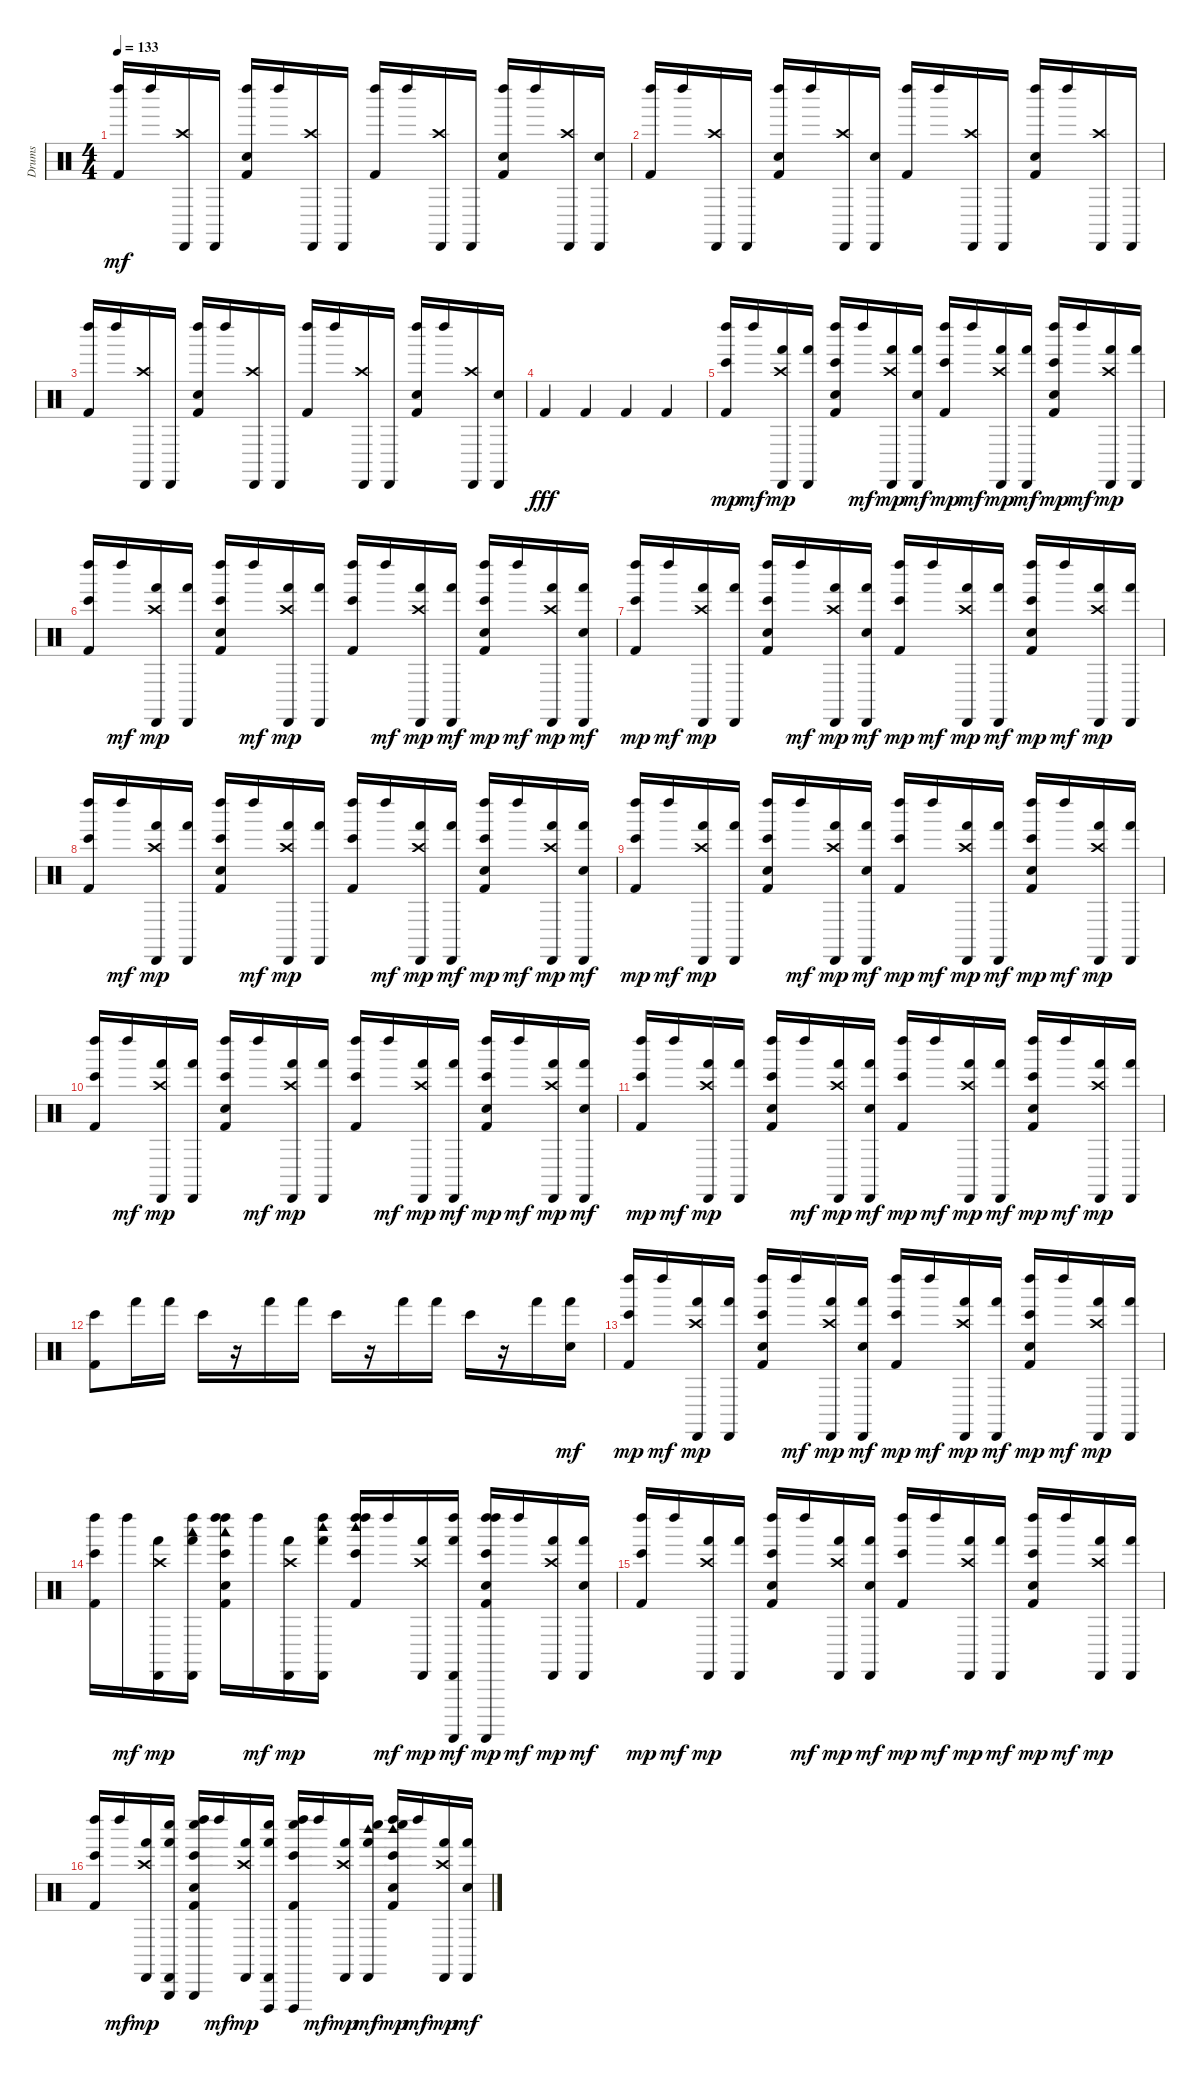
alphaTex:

\track ("Drums" "Drums") {instrument percussion}
\staff {score}
\articulation defaults
\ts (4 4)
\tempo 133
\clef neutral
\ks c
("Kick (hit) 2" "Left Maraca (hit)").16{dy mf} "Left Maraca (hit)".16 ("Crash high (hit)" "Cabasa (hit)").16 "Cabasa (hit)".16 ("Kick (hit) 2" "Hand Clap (hit)" "Left Maraca (hit)").16 "Left Maraca (hit)".16 ("Crash high (hit)" "Cabasa (hit)").16 "Cabasa (hit)".16 ("Kick (hit) 2" "Left Maraca (hit)").16 "Left Maraca (hit)".16 ("Crash high (hit)" "Cabasa (hit)").16 "Cabasa (hit)".16 ("Kick (hit) 2" "Hand Clap (hit)" "Left Maraca (hit)").16 "Left Maraca (hit)".16 ("Crash high (hit)" "Cabasa (hit)").16 ("Cabasa (hit)" "Snare (hit) 2").16 |
("Kick (hit) 2" "Left Maraca (hit)").16 "Left Maraca (hit)".16 ("Crash high (hit)" "Cabasa (hit)").16 "Cabasa (hit)".16 ("Kick (hit) 2" "Hand Clap (hit)" "Left Maraca (hit)").16 "Left Maraca (hit)".16 ("Crash high (hit)" "Cabasa (hit)").16 ("Cabasa (hit)" "Snare (hit) 2").16 ("Kick (hit) 2" "Left Maraca (hit)").16 "Left Maraca (hit)".16 ("Crash high (hit)" "Cabasa (hit)").16 "Cabasa (hit)".16 ("Kick (hit) 2" "Hand Clap (hit)" "Left Maraca (hit)").16 "Left Maraca (hit)".16 ("Crash high (hit)" "Cabasa (hit)").16 "Cabasa (hit)".16 |
("Kick (hit) 2" "Left Maraca (hit)").16 "Left Maraca (hit)".16 ("Crash high (hit)" "Cabasa (hit)").16 "Cabasa (hit)".16 ("Kick (hit) 2" "Hand Clap (hit)" "Left Maraca (hit)").16 "Left Maraca (hit)".16 ("Crash high (hit)" "Cabasa (hit)").16 "Cabasa (hit)".16 ("Kick (hit) 2" "Left Maraca (hit)").16 "Left Maraca (hit)".16 ("Crash high (hit)" "Cabasa (hit)").16 "Cabasa (hit)".16 ("Kick (hit) 2" "Hand Clap (hit)" "Left Maraca (hit)").16 "Left Maraca (hit)".16 ("Crash high (hit)" "Cabasa (hit)").16 ("Cabasa (hit)" "Snare (hit) 2").16 |
"Kick (hit) 2".4{dy fff} "Kick (hit) 2".4 "Kick (hit) 2".4 "Kick (hit) 2".4 |
("Kick (hit) 2" "Left Maraca (hit)" "Bongo High (hit)").16{dy mp} "Left Maraca (hit)".16{dy mf} ("Crash high (hit)" "Cabasa (hit)" "Hand (hit)").16{dy mp} ("Cabasa (hit)" "Hand (hit)").16 ("Kick (hit) 2" "Hand Clap (hit)" "Left Maraca (hit)" "Bongo High (hit)").16 "Left Maraca (hit)".16{dy mf} ("Crash high (hit)" "Cabasa (hit)" "Hand (hit)").16{dy mp} ("Cabasa (hit)" "Hand (hit)" "Snare (hit) 2").16{dy mf} ("Kick (hit) 2" "Left Maraca (hit)" "Bongo High (hit)").16{dy mp} "Left Maraca (hit)".16{dy mf} ("Crash high (hit)" "Cabasa (hit)" "Hand (hit)").16{dy mp} ("Hand (hit)" "Cabasa (hit)").16{dy mf} ("Kick (hit) 2" "Hand Clap (hit)" "Left Maraca (hit)" "Bongo High (hit)").16{dy mp} "Left Maraca (hit)".16{dy mf} ("Crash high (hit)" "Cabasa (hit)" "Hand (hit)").16{dy mp} ("Cabasa (hit)" "Hand (hit)").16 |
("Kick (hit) 2" "Left Maraca (hit)" "Bongo High (hit)").16 "Left Maraca (hit)".16{dy mf} ("Crash high (hit)" "Cabasa (hit)" "Hand (hit)").16{dy mp} ("Cabasa (hit)" "Hand (hit)").16 ("Kick (hit) 2" "Hand Clap (hit)" "Left Maraca (hit)" "Bongo High (hit)").16 "Left Maraca (hit)".16{dy mf} ("Crash high (hit)" "Cabasa (hit)" "Hand (hit)").16{dy mp} ("Cabasa (hit)" "Hand (hit)").16 ("Kick (hit) 2" "Left Maraca (hit)" "Bongo High (hit)").16 "Left Maraca (hit)".16{dy mf} ("Crash high (hit)" "Cabasa (hit)" "Hand (hit)").16{dy mp} ("Hand (hit)" "Cabasa (hit)").16{dy mf} ("Kick (hit) 2" "Hand Clap (hit)" "Left Maraca (hit)" "Bongo High (hit)").16{dy mp} "Left Maraca (hit)".16{dy mf} ("Crash high (hit)" "Cabasa (hit)" "Hand (hit)").16{dy mp} ("Cabasa (hit)" "Hand (hit)" "Snare (hit) 2").16{dy mf} |
("Kick (hit) 2" "Left Maraca (hit)" "Bongo High (hit)").16{dy mp} "Left Maraca (hit)".16{dy mf} ("Crash high (hit)" "Cabasa (hit)" "Hand (hit)").16{dy mp} ("Cabasa (hit)" "Hand (hit)").16 ("Kick (hit) 2" "Hand Clap (hit)" "Left Maraca (hit)" "Bongo High (hit)").16 "Left Maraca (hit)".16{dy mf} ("Crash high (hit)" "Cabasa (hit)" "Hand (hit)").16{dy mp} ("Cabasa (hit)" "Hand (hit)" "Snare (hit) 2").16{dy mf} ("Kick (hit) 2" "Left Maraca (hit)" "Bongo High (hit)").16{dy mp} "Left Maraca (hit)".16{dy mf} ("Crash high (hit)" "Cabasa (hit)" "Hand (hit)").16{dy mp} ("Hand (hit)" "Cabasa (hit)").16{dy mf} ("Kick (hit) 2" "Hand Clap (hit)" "Left Maraca (hit)" "Bongo High (hit)").16{dy mp} "Left Maraca (hit)".16{dy mf} ("Crash high (hit)" "Cabasa (hit)" "Hand (hit)").16{dy mp} ("Cabasa (hit)" "Hand (hit)").16 |
("Kick (hit) 2" "Left Maraca (hit)" "Bongo High (hit)").16 "Left Maraca (hit)".16{dy mf} ("Crash high (hit)" "Cabasa (hit)" "Hand (hit)").16{dy mp} ("Cabasa (hit)" "Hand (hit)").16 ("Kick (hit) 2" "Hand Clap (hit)" "Left Maraca (hit)" "Bongo High (hit)").16 "Left Maraca (hit)".16{dy mf} ("Crash high (hit)" "Cabasa (hit)" "Hand (hit)").16{dy mp} ("Cabasa (hit)" "Hand (hit)").16 ("Kick (hit) 2" "Left Maraca (hit)" "Bongo High (hit)").16 "Left Maraca (hit)".16{dy mf} ("Crash high (hit)" "Cabasa (hit)" "Hand (hit)").16{dy mp} ("Hand (hit)" "Cabasa (hit)").16{dy mf} ("Kick (hit) 2" "Hand Clap (hit)" "Left Maraca (hit)" "Bongo High (hit)").16{dy mp} "Left Maraca (hit)".16{dy mf} ("Crash high (hit)" "Cabasa (hit)" "Hand (hit)").16{dy mp} ("Cabasa (hit)" "Hand (hit)" "Snare (hit) 2").16{dy mf} |
("Kick (hit) 2" "Left Maraca (hit)" "Bongo High (hit)").16{dy mp} "Left Maraca (hit)".16{dy mf} ("Crash high (hit)" "Cabasa (hit)" "Hand (hit)").16{dy mp} ("Cabasa (hit)" "Hand (hit)").16 ("Kick (hit) 2" "Hand Clap (hit)" "Left Maraca (hit)" "Bongo High (hit)").16 "Left Maraca (hit)".16{dy mf} ("Crash high (hit)" "Cabasa (hit)" "Hand (hit)").16{dy mp} ("Cabasa (hit)" "Hand (hit)" "Snare (hit) 2").16{dy mf} ("Kick (hit) 2" "Left Maraca (hit)" "Bongo High (hit)").16{dy mp} "Left Maraca (hit)".16{dy mf} ("Crash high (hit)" "Cabasa (hit)" "Hand (hit)").16{dy mp} ("Hand (hit)" "Cabasa (hit)").16{dy mf} ("Kick (hit) 2" "Hand Clap (hit)" "Left Maraca (hit)" "Bongo High (hit)").16{dy mp} "Left Maraca (hit)".16{dy mf} ("Crash high (hit)" "Cabasa (hit)" "Hand (hit)").16{dy mp} ("Cabasa (hit)" "Hand (hit)").16 |
("Kick (hit) 2" "Left Maraca (hit)" "Bongo High (hit)").16 "Left Maraca (hit)".16{dy mf} ("Crash high (hit)" "Cabasa (hit)" "Hand (hit)").16{dy mp} ("Cabasa (hit)" "Hand (hit)").16 ("Kick (hit) 2" "Hand Clap (hit)" "Left Maraca (hit)" "Bongo High (hit)").16 "Left Maraca (hit)".16{dy mf} ("Crash high (hit)" "Cabasa (hit)" "Hand (hit)").16{dy mp} ("Cabasa (hit)" "Hand (hit)").16 ("Kick (hit) 2" "Left Maraca (hit)" "Bongo High (hit)").16 "Left Maraca (hit)".16{dy mf} ("Crash high (hit)" "Cabasa (hit)" "Hand (hit)").16{dy mp} ("Hand (hit)" "Cabasa (hit)").16{dy mf} ("Kick (hit) 2" "Hand Clap (hit)" "Left Maraca (hit)" "Bongo High (hit)").16{dy mp} "Left Maraca (hit)".16{dy mf} ("Crash high (hit)" "Cabasa (hit)" "Hand (hit)").16{dy mp} ("Cabasa (hit)" "Hand (hit)" "Snare (hit) 2").16{dy mf} |
("Kick (hit) 2" "Left Maraca (hit)" "Bongo High (hit)").16{dy mp} "Left Maraca (hit)".16{dy mf} ("Crash high (hit)" "Cabasa (hit)" "Hand (hit)").16{dy mp} ("Cabasa (hit)" "Hand (hit)").16 ("Kick (hit) 2" "Hand Clap (hit)" "Left Maraca (hit)" "Bongo High (hit)").16 "Left Maraca (hit)".16{dy mf} ("Crash high (hit)" "Cabasa (hit)" "Hand (hit)").16{dy mp} ("Cabasa (hit)" "Hand (hit)" "Snare (hit) 2").16{dy mf} ("Kick (hit) 2" "Left Maraca (hit)" "Bongo High (hit)").16{dy mp} "Left Maraca (hit)".16{dy mf} ("Crash high (hit)" "Cabasa (hit)" "Hand (hit)").16{dy mp} ("Hand (hit)" "Cabasa (hit)").16{dy mf} ("Kick (hit) 2" "Hand Clap (hit)" "Left Maraca (hit)" "Bongo High (hit)").16{dy mp} "Left Maraca (hit)".16{dy mf} ("Crash high (hit)" "Cabasa (hit)" "Hand (hit)").16{dy mp} ("Cabasa (hit)" "Hand (hit)").16 |
("Kick (hit) 2" "Bongo High (hit)").8 "Hand (hit)".16 "Hand (hit)".16 "Bongo High (hit)".16 r.16 "Hand (hit)".16 "Hand (hit)".16 "Bongo High (hit)".16 r.16 "Hand (hit)".16 "Hand (hit)".16 "Bongo High (hit)".16 r.16 "Hand (hit)".16 ("Hand (hit)" "Snare (hit) 2").16{dy mf} |
("Kick (hit) 2" "Left Maraca (hit)" "Bongo High (hit)").16{dy mp} "Left Maraca (hit)".16{dy mf} ("Crash high (hit)" "Cabasa (hit)" "Hand (hit)").16{dy mp} ("Cabasa (hit)" "Hand (hit)").16 ("Kick (hit) 2" "Hand Clap (hit)" "Left Maraca (hit)" "Bongo High (hit)").16 "Left Maraca (hit)".16{dy mf} ("Crash high (hit)" "Cabasa (hit)" "Hand (hit)").16{dy mp} ("Cabasa (hit)" "Hand (hit)" "Snare (hit) 2").16{dy mf} ("Kick (hit) 2" "Left Maraca (hit)" "Bongo High (hit)").16{dy mp} "Left Maraca (hit)".16{dy mf} ("Crash high (hit)" "Cabasa (hit)" "Hand (hit)").16{dy mp} ("Hand (hit)" "Cabasa (hit)").16{dy mf} ("Kick (hit) 2" "Hand Clap (hit)" "Left Maraca (hit)" "Bongo High (hit)").16{dy mp} "Left Maraca (hit)".16{dy mf} ("Crash high (hit)" "Cabasa (hit)" "Hand (hit)").16{dy mp} ("Cabasa (hit)" "Hand (hit)").16 |
("Kick (hit) 2" "Left Maraca (hit)" "Bongo High (hit)").16 "Left Maraca (hit)".16{dy mf} ("Crash high (hit)" "Cabasa (hit)" "Hand (hit)").16{dy mp} ("Cabasa (hit)" "Hand (hit)" "Left Maraca (hit)" "Woodblock low (hit)").16 ("Kick (hit) 2" "Hand Clap (hit)" "Left Maraca (hit)" "Bongo High (hit)" "Left Maraca (hit)" "Woodblock low (hit)").16 "Left Maraca (hit)".16{dy mf} ("Crash high (hit)" "Cabasa (hit)" "Hand (hit)").16{dy mp} ("Cabasa (hit)" "Hand (hit)" "Left Maraca (hit)" "Woodblock high (hit)").16 ("Kick (hit) 2" "Left Maraca (hit)" "Bongo High (hit)" "Left Maraca (hit)" "Woodblock high (hit)").16 "Left Maraca (hit)".16{dy mf} ("Crash high (hit)" "Cabasa (hit)" "Hand (hit)").16{dy mp} ("Hand (hit)" "Left Maraca (hit)" "Guiro (scrap-return)" "Cabasa (hit)").16{dy mf} ("Kick (hit) 2" "Hand Clap (hit)" "Left Maraca (hit)" "Bongo High (hit)" "Left Maraca (hit)" "Guiro (scrap-return)").16{dy mp} "Left Maraca (hit)".16{dy mf} ("Crash high (hit)" "Cabasa (hit)" "Hand (hit)").16{dy mp} ("Cabasa (hit)" "Hand (hit)" "Snare (hit) 2").16{dy mf} |
("Kick (hit) 2" "Left Maraca (hit)" "Bongo High (hit)").16{dy mp} "Left Maraca (hit)".16{dy mf} ("Crash high (hit)" "Cabasa (hit)" "Hand (hit)").16{dy mp} ("Cabasa (hit)" "Hand (hit)").16 ("Kick (hit) 2" "Hand Clap (hit)" "Left Maraca (hit)" "Bongo High (hit)").16 "Left Maraca (hit)".16{dy mf} ("Crash high (hit)" "Cabasa (hit)" "Hand (hit)").16{dy mp} ("Cabasa (hit)" "Hand (hit)" "Snare (hit) 2").16{dy mf} ("Kick (hit) 2" "Left Maraca (hit)" "Bongo High (hit)").16{dy mp} "Left Maraca (hit)".16{dy mf} ("Crash high (hit)" "Cabasa (hit)" "Hand (hit)").16{dy mp} ("Hand (hit)" "Cabasa (hit)").16{dy mf} ("Kick (hit) 2" "Hand Clap (hit)" "Left Maraca (hit)" "Bongo High (hit)").16{dy mp} "Left Maraca (hit)".16{dy mf} ("Crash high (hit)" "Cabasa (hit)" "Hand (hit)").16{dy mp} ("Cabasa (hit)" "Hand (hit)").16 |
("Kick (hit) 2" "Left Maraca (hit)" "Bongo High (hit)").16 "Left Maraca (hit)".16{dy mf} ("Crash high (hit)" "Cabasa (hit)" "Hand (hit)").16{dy mp} ("Cabasa (hit)" "Hand (hit)" "Triangle (hit)" "Whistle low (hit)").16 ("Kick (hit) 2" "Hand Clap (hit)" "Left Maraca (hit)" "Bongo High (hit)" "Triangle (hit)" "Whistle low (hit)").16 "Left Maraca (hit)".16{dy mf} ("Crash high (hit)" "Cabasa (hit)" "Hand (hit)").16{dy mp} ("Cabasa (hit)" "Hand (hit)" "Cuica (open)" "Whistle low (hit)").16 ("Kick (hit) 2" "Left Maraca (hit)" "Bongo High (hit)" "Cuica (open)" "Whistle low (hit)").16 "Left Maraca (hit)".16{dy mf} ("Crash high (hit)" "Cabasa (hit)" "Hand (hit)").16{dy mp} ("Hand (hit)" "Woodblock high (hit)" "Whistle low (hit)" "Cabasa (hit)").16{dy mf} ("Kick (hit) 2" "Hand Clap (hit)" "Left Maraca (hit)" "Bongo High (hit)" "Woodblock high (hit)" "Whistle low (hit)").16{dy mp} "Left Maraca (hit)".16{dy mf} ("Crash high (hit)" "Cabasa (hit)" "Hand (hit)").16{dy mp} ("Cabasa (hit)" "Hand (hit)" "Snare (hit) 2").16{dy mf}
